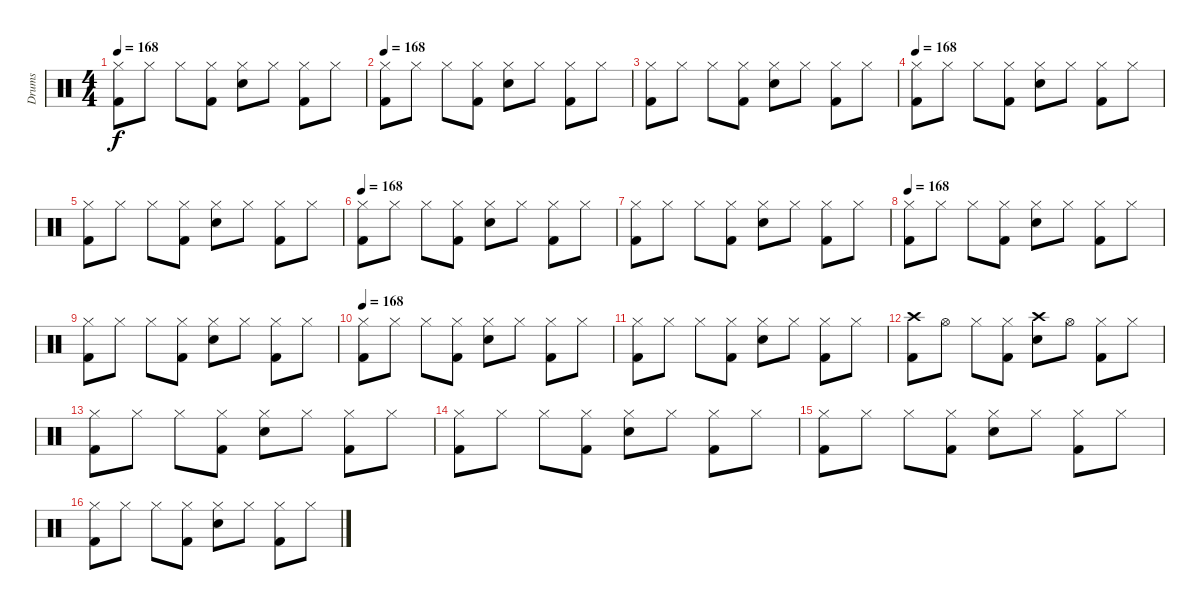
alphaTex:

\track ("Drums" "Drums") {instrument percussion}
\staff {score}
\articulation defaults
\ts (4 4)
\tempo 168
\clef neutral
\ks c
("Kick (hit) 2" "Hi-Hat (closed)").8{dy f} "Hi-Hat (closed)".8 "Hi-Hat (closed)".8 ("Kick (hit) 2" "Hi-Hat (closed)").8 ("Snare (hit) 2" "Hi-Hat (closed)").8 "Hi-Hat (closed)".8 ("Kick (hit) 2" "Hi-Hat (closed)").8 "Hi-Hat (closed)".8 |
\tempo 168
("Kick (hit) 2" "Hi-Hat (closed)").8 "Hi-Hat (closed)".8 "Hi-Hat (closed)".8 ("Kick (hit) 2" "Hi-Hat (closed)").8 ("Snare (hit) 2" "Hi-Hat (closed)").8 "Hi-Hat (closed)".8 ("Kick (hit) 2" "Hi-Hat (closed)").8 "Hi-Hat (closed)".8 |
("Kick (hit) 2" "Hi-Hat (closed)").8 "Hi-Hat (closed)".8 "Hi-Hat (closed)".8 ("Kick (hit) 2" "Hi-Hat (closed)").8 ("Snare (hit) 2" "Hi-Hat (closed)").8 "Hi-Hat (closed)".8 ("Kick (hit) 2" "Hi-Hat (closed)").8 "Hi-Hat (closed)".8 |
\tempo 168
("Kick (hit) 2" "Hi-Hat (closed)").8 "Hi-Hat (closed)".8 "Hi-Hat (closed)".8 ("Kick (hit) 2" "Hi-Hat (closed)").8 ("Snare (hit) 2" "Hi-Hat (closed)").8 "Hi-Hat (closed)".8 ("Kick (hit) 2" "Hi-Hat (closed)").8 "Hi-Hat (closed)".8 |
("Kick (hit) 2" "Hi-Hat (closed)").8 "Hi-Hat (closed)".8 "Hi-Hat (closed)".8 ("Kick (hit) 2" "Hi-Hat (closed)").8 ("Snare (hit) 2" "Hi-Hat (closed)").8 "Hi-Hat (closed)".8 ("Kick (hit) 2" "Hi-Hat (closed)").8 "Hi-Hat (closed)".8 |
\tempo 168
("Kick (hit) 2" "Hi-Hat (closed)").8 "Hi-Hat (closed)".8 "Hi-Hat (closed)".8 ("Kick (hit) 2" "Hi-Hat (closed)").8 ("Snare (hit) 2" "Hi-Hat (closed)").8 "Hi-Hat (closed)".8 ("Kick (hit) 2" "Hi-Hat (closed)").8 "Hi-Hat (closed)".8 |
("Kick (hit) 2" "Hi-Hat (closed)").8 "Hi-Hat (closed)".8 "Hi-Hat (closed)".8 ("Kick (hit) 2" "Hi-Hat (closed)").8 ("Snare (hit) 2" "Hi-Hat (closed)").8 "Hi-Hat (closed)".8 ("Kick (hit) 2" "Hi-Hat (closed)").8 "Hi-Hat (closed)".8 |
\tempo 168
("Kick (hit) 2" "Hi-Hat (closed)").8 "Hi-Hat (closed)".8 "Hi-Hat (closed)".8 ("Kick (hit) 2" "Hi-Hat (closed)").8 ("Snare (hit) 2" "Hi-Hat (closed)").8 "Hi-Hat (closed)".8 ("Kick (hit) 2" "Hi-Hat (closed)").8 "Hi-Hat (closed)".8 |
("Kick (hit) 2" "Hi-Hat (closed)").8 "Hi-Hat (closed)".8 "Hi-Hat (closed)".8 ("Kick (hit) 2" "Hi-Hat (closed)").8 ("Snare (hit) 2" "Hi-Hat (closed)").8 "Hi-Hat (closed)".8 ("Kick (hit) 2" "Hi-Hat (closed)").8 "Hi-Hat (closed)".8 |
\tempo 168
("Kick (hit) 2" "Hi-Hat (closed)").8 "Hi-Hat (closed)".8 "Hi-Hat (closed)".8 ("Kick (hit) 2" "Hi-Hat (closed)").8 ("Snare (hit) 2" "Hi-Hat (closed)").8 "Hi-Hat (closed)".8 ("Kick (hit) 2" "Hi-Hat (closed)").8 "Hi-Hat (closed)".8 |
("Kick (hit) 2" "Hi-Hat (closed)").8 "Hi-Hat (closed)".8 "Hi-Hat (closed)".8 ("Kick (hit) 2" "Hi-Hat (closed)").8 ("Snare (hit) 2" "Hi-Hat (closed)").8 "Hi-Hat (closed)".8 ("Kick (hit) 2" "Hi-Hat (closed)").8 "Hi-Hat (closed)".8 |
("Crash high (hit)" "Kick (hit) 2").8 "Hi-Hat (open)".8 "Hi-Hat (closed)".8 ("Hi-Hat (closed)" "Kick (hit) 2").8 ("Crash high (hit)" "Snare (hit) 2").8 "Hi-Hat (open)".8 ("Hi-Hat (closed)" "Kick (hit) 2").8 "Hi-Hat (closed)".8 |
("Kick (hit) 2" "Hi-Hat (closed)").8 "Hi-Hat (closed)".8 "Hi-Hat (closed)".8 ("Kick (hit) 2" "Hi-Hat (closed)").8 ("Snare (hit) 2" "Hi-Hat (closed)").8 "Hi-Hat (closed)".8 ("Kick (hit) 2" "Hi-Hat (closed)").8 "Hi-Hat (closed)".8 |
("Kick (hit) 2" "Hi-Hat (closed)").8 "Hi-Hat (closed)".8 "Hi-Hat (closed)".8 ("Kick (hit) 2" "Hi-Hat (closed)").8 ("Snare (hit) 2" "Hi-Hat (closed)").8 "Hi-Hat (closed)".8 ("Kick (hit) 2" "Hi-Hat (closed)").8 "Hi-Hat (closed)".8 |
("Kick (hit) 2" "Hi-Hat (closed)").8 "Hi-Hat (closed)".8 "Hi-Hat (closed)".8 ("Kick (hit) 2" "Hi-Hat (closed)").8 ("Snare (hit) 2" "Hi-Hat (closed)").8 "Hi-Hat (closed)".8 ("Kick (hit) 2" "Hi-Hat (closed)").8 "Hi-Hat (closed)".8 |
("Kick (hit) 2" "Hi-Hat (closed)").8 "Hi-Hat (closed)".8 "Hi-Hat (closed)".8 ("Kick (hit) 2" "Hi-Hat (closed)").8 ("Snare (hit) 2" "Hi-Hat (closed)").8 "Hi-Hat (closed)".8 ("Kick (hit) 2" "Hi-Hat (closed)").8 "Hi-Hat (closed)".8
